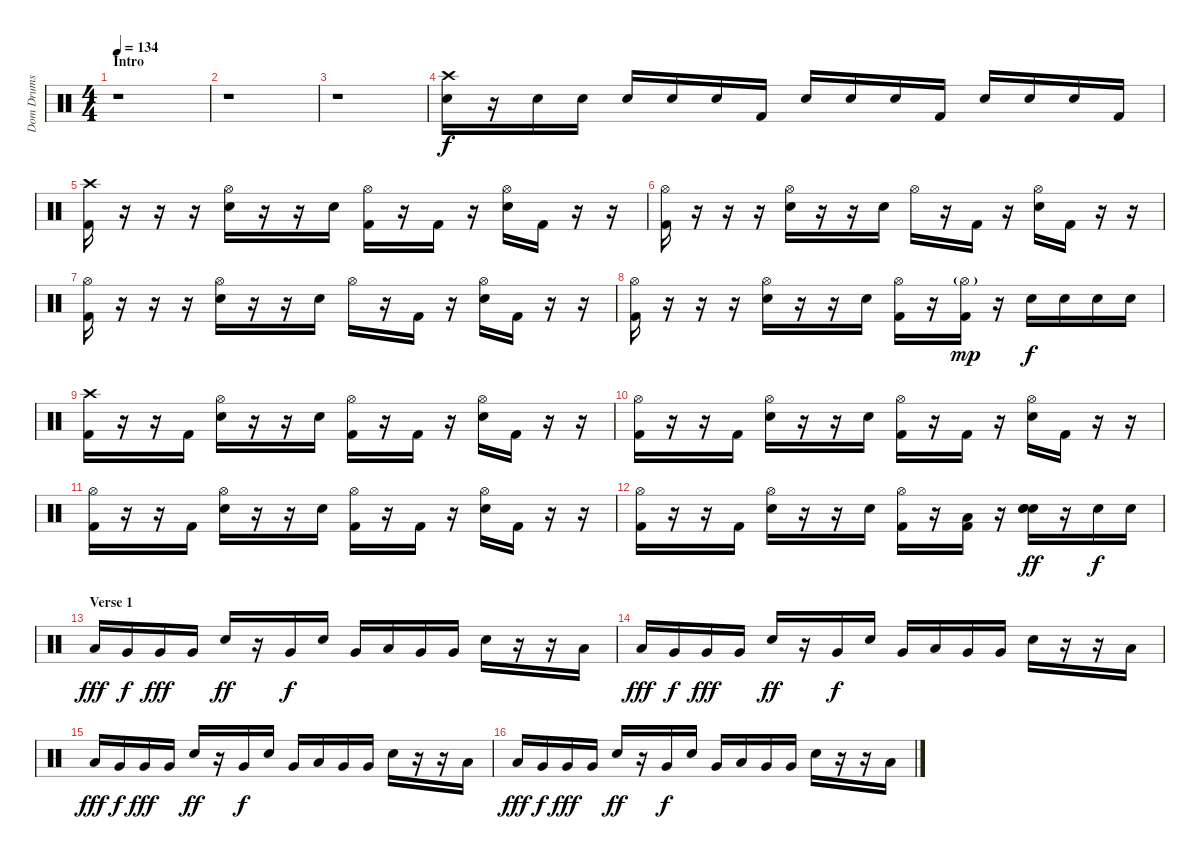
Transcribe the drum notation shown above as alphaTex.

\track ("Dom Drums" "Dom Drums") {instrument percussion}
\staff {score}
\articulation defaults
\ts (4 4)
\section ("" "Intro")
\tempo 134
\clef neutral
\ks c
r.1{dy f} |
r.1 |
r.1 |
("Crash high (hit)" "Electric Snare (hit)").16 r.16 "Electric Snare (hit)".16 "Electric Snare (hit)".16 "Electric Snare (hit)".16 "Electric Snare (hit)".16 "Electric Snare (hit)".16 "Kick (hit) 2".16 "Electric Snare (hit)".16 "Electric Snare (hit)".16 "Electric Snare (hit)".16 "Kick (hit) 2".16 "Electric Snare (hit)".16 "Electric Snare (hit)".16 "Electric Snare (hit)".16 "Kick (hit) 2".16 |
("Crash high (hit)" "Kick (hit) 2").16 r.16 r.16 r.16 ("Hi-Hat (open)" "Electric Snare (hit)").16 r.16 r.16 "Electric Snare (hit)".16 ("Hi-Hat (open)" "Kick (hit) 2").16 r.16 "Kick (hit) 2".16 r.16 ("Hi-Hat (open)" "Electric Snare (hit)").16 "Kick (hit) 2".16 r.16 r.16 |
("Hi-Hat (open)" "Kick (hit) 2").16 r.16 r.16 r.16 ("Hi-Hat (open)" "Electric Snare (hit)").16 r.16 r.16 "Electric Snare (hit)".16 "Hi-Hat (open)".16 r.16 "Kick (hit) 2".16 r.16 ("Hi-Hat (open)" "Electric Snare (hit)").16 "Kick (hit) 2".16 r.16 r.16 |
("Hi-Hat (open)" "Kick (hit) 2").16 r.16 r.16 r.16 ("Hi-Hat (open)" "Electric Snare (hit)").16 r.16 r.16 "Electric Snare (hit)".16 "Hi-Hat (open)".16 r.16 "Kick (hit) 2".16 r.16 ("Hi-Hat (open)" "Electric Snare (hit)").16 "Kick (hit) 2".16 r.16 r.16 |
("Hi-Hat (open)" "Kick (hit) 2").16 r.16 r.16 r.16 ("Hi-Hat (open)" "Electric Snare (hit)").16 r.16 r.16 "Electric Snare (hit)".16 ("Hi-Hat (open)" "Kick (hit) 2").16 r.16 ("Hi-Hat (open)"{g} "Kick (hit) 2").16{dy mp} r.16 "Electric Snare (hit)".16{dy f} "Electric Snare (hit)".16 "Electric Snare (hit)".16 "Electric Snare (hit)".16 |
("Crash high (hit)" "Kick (hit) 2").16 r.16 r.16 "Kick (hit) 2".16 ("Hi-Hat (open)" "Electric Snare (hit)").16 r.16 r.16 "Electric Snare (hit)".16 ("Hi-Hat (open)" "Kick (hit) 2").16 r.16 "Kick (hit) 2".16 r.16 ("Hi-Hat (open)" "Electric Snare (hit)").16 "Kick (hit) 2".16 r.16 r.16 |
("Hi-Hat (open)" "Kick (hit) 2").16 r.16 r.16 "Kick (hit) 2".16 ("Hi-Hat (open)" "Electric Snare (hit)").16 r.16 r.16 "Electric Snare (hit)".16 ("Hi-Hat (open)" "Kick (hit) 2").16 r.16 "Kick (hit) 2".16 r.16 ("Hi-Hat (open)" "Electric Snare (hit)").16 "Kick (hit) 2".16 r.16 r.16 |
("Hi-Hat (open)" "Kick (hit) 2").16 r.16 r.16 "Kick (hit) 2".16 ("Hi-Hat (open)" "Electric Snare (hit)").16 r.16 r.16 "Electric Snare (hit)".16 ("Hi-Hat (open)" "Kick (hit) 2").16 r.16 "Kick (hit) 2".16 r.16 ("Hi-Hat (open)" "Electric Snare (hit)").16 "Kick (hit) 2".16 r.16 r.16 |
("Hi-Hat (open)" "Kick (hit) 2").16 r.16 r.16 "Kick (hit) 2".16 ("Hi-Hat (open)" "Electric Snare (hit)").16 r.16 r.16 "Electric Snare (hit)".16 ("Hi-Hat (open)" "Kick (hit) 2").16 r.16 ("Low Floor Tom (hit)" "Kick (hit) 2").16 r.16 ("Electric Snare (hit)" "Electric Snare (hit)" "Electric Snare (hit)").16{dy ff} r.16 "Electric Snare (hit)".16{dy f} "Electric Snare (hit)".16 |
\section ("" "Verse 1")
"Low Tom (hit)".16{dy fff} "Very Low Tom (hit)".16{dy f} "Very Low Tom (hit)".16{dy fff} "Very Low Tom (hit)".16 "Electric Snare (hit)".16{dy ff} r.16 "Very Low Tom (hit)".16{dy f} "Electric Snare (hit)".16 "Very Low Tom (hit)".16 "Low Tom (hit)".16 "Very Low Tom (hit)".16 "Very Low Tom (hit)".16 "Electric Snare (hit)".16 r.16 r.16 "Low Tom (hit)".16 |
"Low Tom (hit)".16{dy fff} "Very Low Tom (hit)".16{dy f} "Very Low Tom (hit)".16{dy fff} "Very Low Tom (hit)".16 "Electric Snare (hit)".16{dy ff} r.16 "Very Low Tom (hit)".16{dy f} "Electric Snare (hit)".16 "Very Low Tom (hit)".16 "Low Tom (hit)".16 "Very Low Tom (hit)".16 "Very Low Tom (hit)".16 "Electric Snare (hit)".16 r.16 r.16 "Low Tom (hit)".16 |
"Low Tom (hit)".16{dy fff} "Very Low Tom (hit)".16{dy f} "Very Low Tom (hit)".16{dy fff} "Very Low Tom (hit)".16 "Electric Snare (hit)".16{dy ff} r.16 "Very Low Tom (hit)".16{dy f} "Electric Snare (hit)".16 "Very Low Tom (hit)".16 "Low Tom (hit)".16 "Very Low Tom (hit)".16 "Very Low Tom (hit)".16 "Electric Snare (hit)".16 r.16 r.16 "Low Tom (hit)".16 |
"Low Tom (hit)".16{dy fff} "Very Low Tom (hit)".16{dy f} "Very Low Tom (hit)".16{dy fff} "Very Low Tom (hit)".16 "Electric Snare (hit)".16{dy ff} r.16 "Very Low Tom (hit)".16{dy f} "Electric Snare (hit)".16 "Very Low Tom (hit)".16 "Low Tom (hit)".16 "Very Low Tom (hit)".16 "Very Low Tom (hit)".16 "Electric Snare (hit)".16 r.16 r.16 "Low Tom (hit)".16
